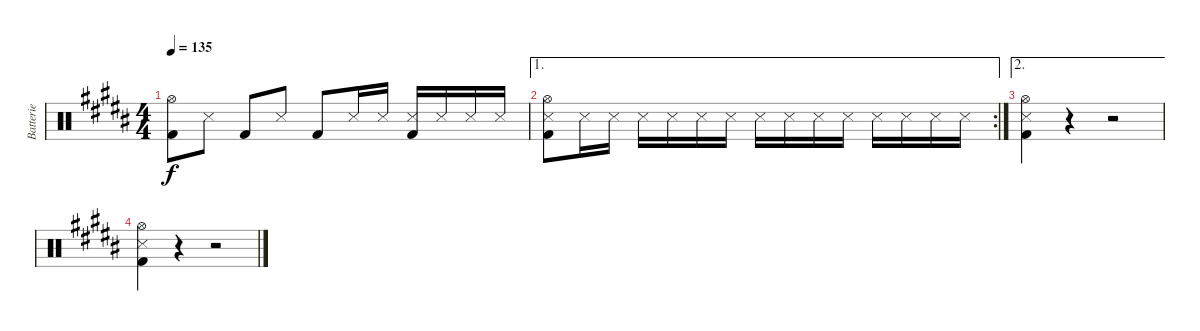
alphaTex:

\track ("Batterie" "Batterie") {instrument percussion}
\staff {score}
\articulation defaults
\ts (4 4)
\tempo 135
\clef neutral
\ks b
("Hi-Hat (open)" "Kick (hit) 2").8{dy f} "Snare (side stick) 3".8 "Kick (hit) 2".8 "Snare (side stick) 3".8 "Kick (hit) 2".8 "Snare (side stick) 3".16 "Snare (side stick) 3".16 ("Snare (side stick) 3" "Kick (hit) 2").16 "Snare (side stick) 3".16 "Snare (side stick) 3".16 "Snare (side stick) 3".16 |
\ae 1
\rc 2
("Hi-Hat (open)" "Snare (side stick) 3" "Kick (hit) 2").8 "Snare (side stick) 3".16 "Snare (side stick) 3".16 "Snare (side stick) 3".16 "Snare (side stick) 3".16 "Snare (side stick) 3".16 "Snare (side stick) 3".16 "Snare (side stick) 3".16 "Snare (side stick) 3".16 "Snare (side stick) 3".16 "Snare (side stick) 3".16 "Snare (side stick) 3".16 "Snare (side stick) 3".16 "Snare (side stick) 3".16 "Snare (side stick) 3".16 |
\ae 2
("Hi-Hat (open)" "Snare (side stick) 3" "Kick (hit) 2").4 r.4 r.2 |
("Hi-Hat (open)" "Snare (side stick) 3" "Kick (hit) 2").4 r.4 r.2
